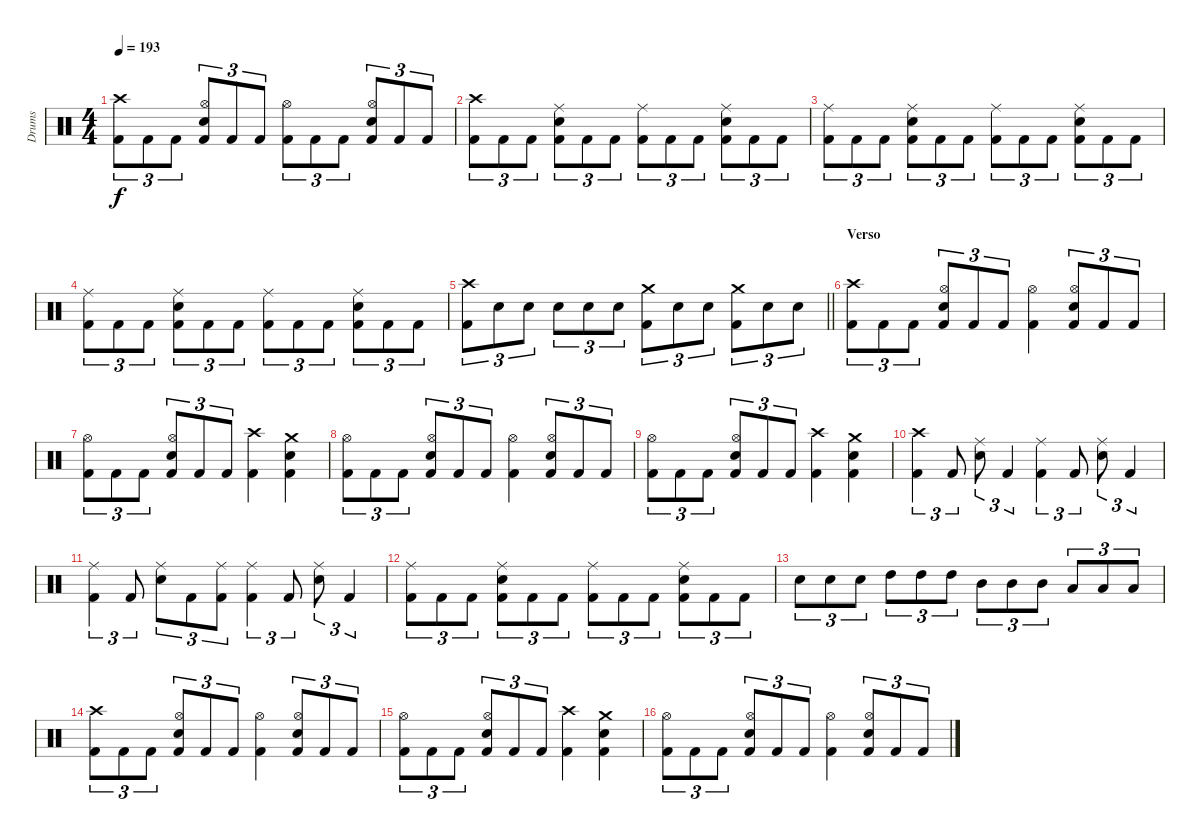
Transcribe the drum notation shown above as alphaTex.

\track ("Drums" "Drums") {instrument percussion}
\staff {score}
\articulation defaults
\ts (4 4)
\tempo 193
\clef neutral
\ks c
("Crash high (hit)" "Kick (hit) 2").8{tu (3 2) dy f} "Kick (hit) 2".8{tu (3 2)} "Kick (hit) 2".8{tu (3 2)} ("Hi-Hat (open)" "Electric Snare (hit)" "Kick (hit) 2").8{tu (3 2)} "Kick (hit) 2".8{tu (3 2)} "Kick (hit) 2".8{tu (3 2)} ("Hi-Hat (open)" "Kick (hit) 2").8{tu (3 2)} "Kick (hit) 2".8{tu (3 2)} "Kick (hit) 2".8{tu (3 2)} ("Hi-Hat (open)" "Electric Snare (hit)" "Kick (hit) 2").8{tu (3 2)} "Kick (hit) 2".8{tu (3 2)} "Kick (hit) 2".8{tu (3 2)} |
("Crash high (hit)" "Kick (hit) 2").8{tu (3 2)} "Kick (hit) 2".8{tu (3 2)} "Kick (hit) 2".8{tu (3 2)} ("Ride (middle)" "Electric Snare (hit)" "Kick (hit) 2").8{tu (3 2)} "Kick (hit) 2".8{tu (3 2)} "Kick (hit) 2".8{tu (3 2)} ("Ride (middle)" "Kick (hit) 2").8{tu (3 2)} "Kick (hit) 2".8{tu (3 2)} "Kick (hit) 2".8{tu (3 2)} ("Ride (middle)" "Electric Snare (hit)" "Kick (hit) 2").8{tu (3 2)} "Kick (hit) 2".8{tu (3 2)} "Kick (hit) 2".8{tu (3 2)} |
("Ride (middle)" "Kick (hit) 2").8{tu (3 2)} "Kick (hit) 2".8{tu (3 2)} "Kick (hit) 2".8{tu (3 2)} ("Ride (middle)" "Electric Snare (hit)" "Kick (hit) 2").8{tu (3 2)} "Kick (hit) 2".8{tu (3 2)} "Kick (hit) 2".8{tu (3 2)} ("Ride (middle)" "Kick (hit) 2").8{tu (3 2)} "Kick (hit) 2".8{tu (3 2)} "Kick (hit) 2".8{tu (3 2)} ("Ride (middle)" "Electric Snare (hit)" "Kick (hit) 2").8{tu (3 2)} "Kick (hit) 2".8{tu (3 2)} "Kick (hit) 2".8{tu (3 2)} |
("Ride (middle)" "Kick (hit) 2").8{tu (3 2)} "Kick (hit) 2".8{tu (3 2)} "Kick (hit) 2".8{tu (3 2)} ("Ride (middle)" "Electric Snare (hit)" "Kick (hit) 2").8{tu (3 2)} "Kick (hit) 2".8{tu (3 2)} "Kick (hit) 2".8{tu (3 2)} ("Ride (middle)" "Kick (hit) 2").8{tu (3 2)} "Kick (hit) 2".8{tu (3 2)} "Kick (hit) 2".8{tu (3 2)} ("Ride (middle)" "Electric Snare (hit)" "Kick (hit) 2").8{tu (3 2)} "Kick (hit) 2".8{tu (3 2)} "Kick (hit) 2".8{tu (3 2)} |
\barLineRight lightlight
("Crash high (hit)" "Kick (hit) 2").8{tu (3 2)} "Electric Snare (hit)".8{tu (3 2)} "Electric Snare (hit)".8{tu (3 2)} "Electric Snare (hit)".8{tu (3 2)} "Electric Snare (hit)".8{tu (3 2)} "Electric Snare (hit)".8{tu (3 2)} ("Crash medium (hit)" "Kick (hit) 2").8{tu (3 2)} "Electric Snare (hit)".8{tu (3 2)} "Electric Snare (hit)".8{tu (3 2)} ("Crash medium (hit)" "Kick (hit) 2").8{tu (3 2)} "Electric Snare (hit)".8{tu (3 2)} "Electric Snare (hit)".8{tu (3 2)} |
\section ("" "Verso")
("Crash high (hit)" "Kick (hit) 2").8{tu (3 2)} "Kick (hit) 2".8{tu (3 2)} "Kick (hit) 2".8{tu (3 2)} ("Hi-Hat (open)" "Electric Snare (hit)" "Kick (hit) 2").8{tu (3 2)} "Kick (hit) 2".8{tu (3 2)} "Kick (hit) 2".8{tu (3 2)} ("Hi-Hat (open)" "Kick (hit) 2").4 ("Hi-Hat (open)" "Electric Snare (hit)" "Kick (hit) 2").8{tu (3 2)} "Kick (hit) 2".8{tu (3 2)} "Kick (hit) 2".8{tu (3 2)} |
("Hi-Hat (open)" "Kick (hit) 2").8{tu (3 2)} "Kick (hit) 2".8{tu (3 2)} "Kick (hit) 2".8{tu (3 2)} ("Hi-Hat (open)" "Electric Snare (hit)" "Kick (hit) 2").8{tu (3 2)} "Kick (hit) 2".8{tu (3 2)} "Kick (hit) 2".8{tu (3 2)} ("Crash high (hit)" "Kick (hit) 2").4 ("Crash medium (hit)" "Electric Snare (hit)" "Kick (hit) 2").4 |
("Hi-Hat (open)" "Kick (hit) 2").8{tu (3 2)} "Kick (hit) 2".8{tu (3 2)} "Kick (hit) 2".8{tu (3 2)} ("Hi-Hat (open)" "Electric Snare (hit)" "Kick (hit) 2").8{tu (3 2)} "Kick (hit) 2".8{tu (3 2)} "Kick (hit) 2".8{tu (3 2)} ("Hi-Hat (open)" "Kick (hit) 2").4 ("Hi-Hat (open)" "Electric Snare (hit)" "Kick (hit) 2").8{tu (3 2)} "Kick (hit) 2".8{tu (3 2)} "Kick (hit) 2".8{tu (3 2)} |
("Hi-Hat (open)" "Kick (hit) 2").8{tu (3 2)} "Kick (hit) 2".8{tu (3 2)} "Kick (hit) 2".8{tu (3 2)} ("Hi-Hat (open)" "Electric Snare (hit)" "Kick (hit) 2").8{tu (3 2)} "Kick (hit) 2".8{tu (3 2)} "Kick (hit) 2".8{tu (3 2)} ("Crash high (hit)" "Kick (hit) 2").4 ("Crash medium (hit)" "Electric Snare (hit)" "Kick (hit) 2").4 |
("Crash high (hit)" "Kick (hit) 2").4{tu (3 2)} "Kick (hit) 2".8{tu (3 2)} ("Ride (middle)" "Electric Snare (hit)").8{tu (3 2)} "Kick (hit) 2".4{tu (3 2)} ("Ride (middle)" "Kick (hit) 2").4{tu (3 2)} "Kick (hit) 2".8{tu (3 2)} ("Ride (middle)" "Electric Snare (hit)").8{tu (3 2)} "Kick (hit) 2".4{tu (3 2)} |
("Ride (middle)" "Kick (hit) 2").4{tu (3 2)} "Kick (hit) 2".8{tu (3 2)} ("Ride (middle)" "Electric Snare (hit)").8{tu (3 2)} "Kick (hit) 2".8{tu (3 2)} ("Ride (middle)" "Kick (hit) 2").8{tu (3 2)} ("Ride (middle)" "Kick (hit) 2").4{tu (3 2)} "Kick (hit) 2".8{tu (3 2)} ("Ride (middle)" "Electric Snare (hit)").8{tu (3 2)} "Kick (hit) 2".4{tu (3 2)} |
("Ride (middle)" "Kick (hit) 2").8{tu (3 2)} "Kick (hit) 2".8{tu (3 2)} "Kick (hit) 2".8{tu (3 2)} ("Ride (middle)" "Electric Snare (hit)" "Kick (hit) 2").8{tu (3 2)} "Kick (hit) 2".8{tu (3 2)} "Kick (hit) 2".8{tu (3 2)} ("Ride (middle)" "Kick (hit) 2").8{tu (3 2)} "Kick (hit) 2".8{tu (3 2)} "Kick (hit) 2".8{tu (3 2)} ("Ride (middle)" "Electric Snare (hit)" "Kick (hit) 2").8{tu (3 2)} "Kick (hit) 2".8{tu (3 2)} "Kick (hit) 2".8{tu (3 2)} |
"Electric Snare (hit)".8{tu (3 2)} "Electric Snare (hit)".8{tu (3 2)} "Electric Snare (hit)".8{tu (3 2)} "High Tom (hit)".8{tu (3 2)} "High Tom (hit)".8{tu (3 2)} "High Tom (hit)".8{tu (3 2)} "Mid Tom (hit)".8{tu (3 2)} "Mid Tom (hit)".8{tu (3 2)} "Mid Tom (hit)".8{tu (3 2)} "Low Tom (hit)".8{tu (3 2)} "Low Tom (hit)".8{tu (3 2)} "Low Tom (hit)".8{tu (3 2)} |
("Crash high (hit)" "Kick (hit) 2").8{tu (3 2)} "Kick (hit) 2".8{tu (3 2)} "Kick (hit) 2".8{tu (3 2)} ("Hi-Hat (open)" "Electric Snare (hit)" "Kick (hit) 2").8{tu (3 2)} "Kick (hit) 2".8{tu (3 2)} "Kick (hit) 2".8{tu (3 2)} ("Hi-Hat (open)" "Kick (hit) 2").4 ("Hi-Hat (open)" "Electric Snare (hit)" "Kick (hit) 2").8{tu (3 2)} "Kick (hit) 2".8{tu (3 2)} "Kick (hit) 2".8{tu (3 2)} |
("Hi-Hat (open)" "Kick (hit) 2").8{tu (3 2)} "Kick (hit) 2".8{tu (3 2)} "Kick (hit) 2".8{tu (3 2)} ("Hi-Hat (open)" "Electric Snare (hit)" "Kick (hit) 2").8{tu (3 2)} "Kick (hit) 2".8{tu (3 2)} "Kick (hit) 2".8{tu (3 2)} ("Crash high (hit)" "Kick (hit) 2").4 ("Crash medium (hit)" "Electric Snare (hit)" "Kick (hit) 2").4 |
("Hi-Hat (open)" "Kick (hit) 2").8{tu (3 2)} "Kick (hit) 2".8{tu (3 2)} "Kick (hit) 2".8{tu (3 2)} ("Hi-Hat (open)" "Electric Snare (hit)" "Kick (hit) 2").8{tu (3 2)} "Kick (hit) 2".8{tu (3 2)} "Kick (hit) 2".8{tu (3 2)} ("Hi-Hat (open)" "Kick (hit) 2").4 ("Hi-Hat (open)" "Electric Snare (hit)" "Kick (hit) 2").8{tu (3 2)} "Kick (hit) 2".8{tu (3 2)} "Kick (hit) 2".8{tu (3 2)}
